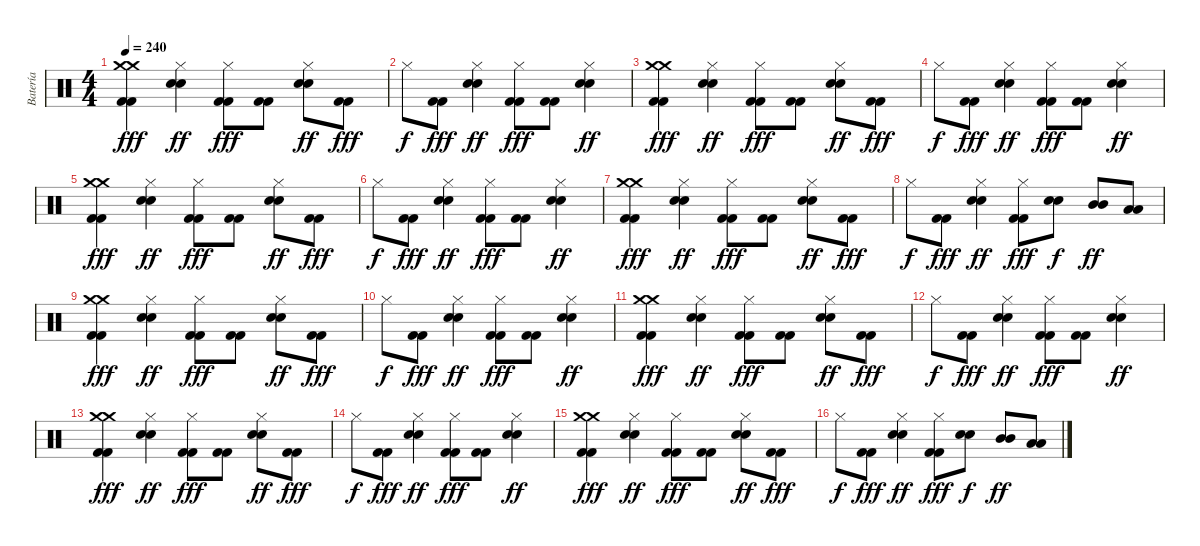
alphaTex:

\track ("Batería" "Batería") {instrument percussion}
\staff {score}
\articulation defaults
\ts (4 4)
\tempo 240
\clef neutral
\ks c
("Crash medium (hit)" "Crash medium (hit)" "Kick (hit) 2" "Kick (hit) 2").4{dy fff} ("Hi-Hat (closed)" "Electric Snare (hit)" "Electric Snare (hit)").4{dy ff} ("Hi-Hat (closed)" "Kick (hit) 2" "Kick (hit) 2").8{dy fff} ("Kick (hit) 2" "Kick (hit) 2").8 ("Hi-Hat (closed)" "Electric Snare (hit)" "Electric Snare (hit)").8{dy ff} ("Kick (hit) 2" "Kick (hit) 2").8{dy fff} |
"Hi-Hat (closed)".8{dy f} ("Kick (hit) 2" "Kick (hit) 2").8{dy fff} ("Hi-Hat (closed)" "Electric Snare (hit)" "Electric Snare (hit)").4{dy ff} ("Hi-Hat (closed)" "Kick (hit) 2" "Kick (hit) 2").8{dy fff} ("Kick (hit) 2" "Kick (hit) 2").8 ("Hi-Hat (closed)" "Electric Snare (hit)" "Electric Snare (hit)").4{dy ff} |
("Crash medium (hit)" "Crash medium (hit)" "Kick (hit) 2" "Kick (hit) 2").4{dy fff} ("Hi-Hat (closed)" "Electric Snare (hit)" "Electric Snare (hit)").4{dy ff} ("Hi-Hat (closed)" "Kick (hit) 2" "Kick (hit) 2").8{dy fff} ("Kick (hit) 2" "Kick (hit) 2").8 ("Hi-Hat (closed)" "Electric Snare (hit)" "Electric Snare (hit)").8{dy ff} ("Kick (hit) 2" "Kick (hit) 2").8{dy fff} |
"Hi-Hat (closed)".8{dy f} ("Kick (hit) 2" "Kick (hit) 2").8{dy fff} ("Hi-Hat (closed)" "Electric Snare (hit)" "Electric Snare (hit)").4{dy ff} ("Hi-Hat (closed)" "Kick (hit) 2" "Kick (hit) 2").8{dy fff} ("Kick (hit) 2" "Kick (hit) 2").8 ("Hi-Hat (closed)" "Electric Snare (hit)" "Electric Snare (hit)").4{dy ff} |
("Crash medium (hit)" "Crash medium (hit)" "Kick (hit) 2" "Kick (hit) 2").4{dy fff} ("Hi-Hat (closed)" "Electric Snare (hit)" "Electric Snare (hit)").4{dy ff} ("Hi-Hat (closed)" "Kick (hit) 2" "Kick (hit) 2").8{dy fff} ("Kick (hit) 2" "Kick (hit) 2").8 ("Hi-Hat (closed)" "Electric Snare (hit)" "Electric Snare (hit)").8{dy ff} ("Kick (hit) 2" "Kick (hit) 2").8{dy fff} |
"Hi-Hat (closed)".8{dy f} ("Kick (hit) 2" "Kick (hit) 2").8{dy fff} ("Hi-Hat (closed)" "Electric Snare (hit)" "Electric Snare (hit)").4{dy ff} ("Hi-Hat (closed)" "Kick (hit) 2" "Kick (hit) 2").8{dy fff} ("Kick (hit) 2" "Kick (hit) 2").8 ("Hi-Hat (closed)" "Electric Snare (hit)" "Electric Snare (hit)").4{dy ff} |
("Crash medium (hit)" "Crash medium (hit)" "Kick (hit) 2" "Kick (hit) 2").4{dy fff} ("Hi-Hat (closed)" "Electric Snare (hit)" "Electric Snare (hit)").4{dy ff} ("Hi-Hat (closed)" "Kick (hit) 2" "Kick (hit) 2").8{dy fff} ("Kick (hit) 2" "Kick (hit) 2").8 ("Hi-Hat (closed)" "Electric Snare (hit)" "Electric Snare (hit)").8{dy ff} ("Kick (hit) 2" "Kick (hit) 2").8{dy fff} |
"Hi-Hat (closed)".8{dy f} ("Kick (hit) 2" "Kick (hit) 2").8{dy fff} ("Hi-Hat (closed)" "Electric Snare (hit)" "Electric Snare (hit)").4{dy ff} ("Hi-Hat (closed)" "Kick (hit) 2" "Kick (hit) 2").8{dy fff} ("Electric Snare (hit)" "Electric Snare (hit)").8{dy f} ("Mid Tom (hit)" "Mid Tom (hit)").8{dy ff} ("Low Tom (hit)" "Low Tom (hit)").8 |
("Crash medium (hit)" "Crash medium (hit)" "Kick (hit) 2" "Kick (hit) 2").4{dy fff} ("Hi-Hat (closed)" "Electric Snare (hit)" "Electric Snare (hit)").4{dy ff} ("Hi-Hat (closed)" "Kick (hit) 2" "Kick (hit) 2").8{dy fff} ("Kick (hit) 2" "Kick (hit) 2").8 ("Hi-Hat (closed)" "Electric Snare (hit)" "Electric Snare (hit)").8{dy ff} ("Kick (hit) 2" "Kick (hit) 2").8{dy fff} |
"Hi-Hat (closed)".8{dy f} ("Kick (hit) 2" "Kick (hit) 2").8{dy fff} ("Hi-Hat (closed)" "Electric Snare (hit)" "Electric Snare (hit)").4{dy ff} ("Hi-Hat (closed)" "Kick (hit) 2" "Kick (hit) 2").8{dy fff} ("Kick (hit) 2" "Kick (hit) 2").8 ("Hi-Hat (closed)" "Electric Snare (hit)" "Electric Snare (hit)").4{dy ff} |
("Crash medium (hit)" "Crash medium (hit)" "Kick (hit) 2" "Kick (hit) 2").4{dy fff} ("Hi-Hat (closed)" "Electric Snare (hit)" "Electric Snare (hit)").4{dy ff} ("Hi-Hat (closed)" "Kick (hit) 2" "Kick (hit) 2").8{dy fff} ("Kick (hit) 2" "Kick (hit) 2").8 ("Hi-Hat (closed)" "Electric Snare (hit)" "Electric Snare (hit)").8{dy ff} ("Kick (hit) 2" "Kick (hit) 2").8{dy fff} |
"Hi-Hat (closed)".8{dy f} ("Kick (hit) 2" "Kick (hit) 2").8{dy fff} ("Hi-Hat (closed)" "Electric Snare (hit)" "Electric Snare (hit)").4{dy ff} ("Hi-Hat (closed)" "Kick (hit) 2" "Kick (hit) 2").8{dy fff} ("Kick (hit) 2" "Kick (hit) 2").8 ("Hi-Hat (closed)" "Electric Snare (hit)" "Electric Snare (hit)").4{dy ff} |
("Crash medium (hit)" "Crash medium (hit)" "Kick (hit) 2" "Kick (hit) 2").4{dy fff} ("Hi-Hat (closed)" "Electric Snare (hit)" "Electric Snare (hit)").4{dy ff} ("Hi-Hat (closed)" "Kick (hit) 2" "Kick (hit) 2").8{dy fff} ("Kick (hit) 2" "Kick (hit) 2").8 ("Hi-Hat (closed)" "Electric Snare (hit)" "Electric Snare (hit)").8{dy ff} ("Kick (hit) 2" "Kick (hit) 2").8{dy fff} |
"Hi-Hat (closed)".8{dy f} ("Kick (hit) 2" "Kick (hit) 2").8{dy fff} ("Hi-Hat (closed)" "Electric Snare (hit)" "Electric Snare (hit)").4{dy ff} ("Hi-Hat (closed)" "Kick (hit) 2" "Kick (hit) 2").8{dy fff} ("Kick (hit) 2" "Kick (hit) 2").8 ("Hi-Hat (closed)" "Electric Snare (hit)" "Electric Snare (hit)").4{dy ff} |
("Crash medium (hit)" "Crash medium (hit)" "Kick (hit) 2" "Kick (hit) 2").4{dy fff} ("Hi-Hat (closed)" "Electric Snare (hit)" "Electric Snare (hit)").4{dy ff} ("Hi-Hat (closed)" "Kick (hit) 2" "Kick (hit) 2").8{dy fff} ("Kick (hit) 2" "Kick (hit) 2").8 ("Hi-Hat (closed)" "Electric Snare (hit)" "Electric Snare (hit)").8{dy ff} ("Kick (hit) 2" "Kick (hit) 2").8{dy fff} |
"Hi-Hat (closed)".8{dy f} ("Kick (hit) 2" "Kick (hit) 2").8{dy fff} ("Hi-Hat (closed)" "Electric Snare (hit)" "Electric Snare (hit)").4{dy ff} ("Hi-Hat (closed)" "Kick (hit) 2" "Kick (hit) 2").8{dy fff} ("Electric Snare (hit)" "Electric Snare (hit)").8{dy f} ("Mid Tom (hit)" "Mid Tom (hit)").8{dy ff} ("Low Tom (hit)" "Low Tom (hit)").8
